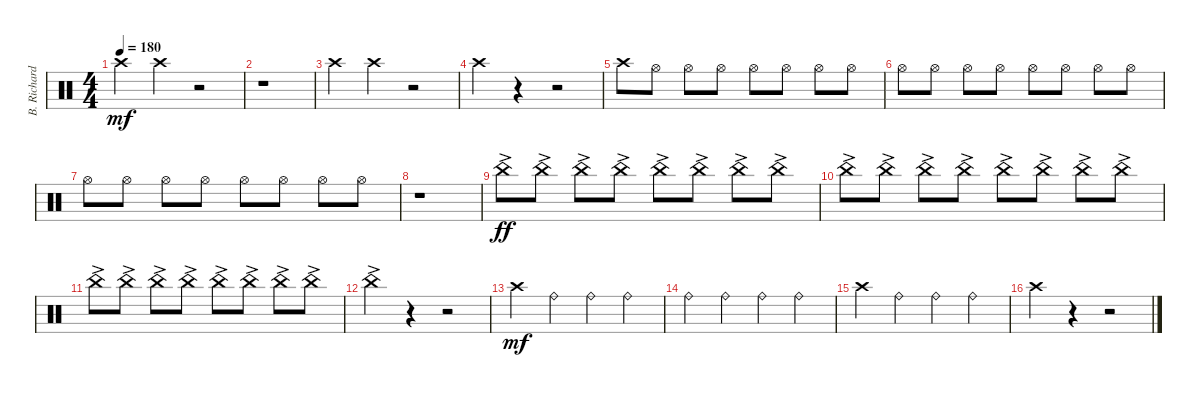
\track ("B. Richardson Drums" "B. Richard") {instrument percussion}
\staff {score}
\articulation defaults
\ts (4 4)
\tempo 180
\clef neutral
\ks c "Crash high (hit)".4{dy mf} "Crash high (hit)".4
r.2 |
r.1 |
"Crash high (hit)".4 "Crash high (hit)".4 r.2 |
"Crash high (hit)".4 r.4 r.2 |
"Crash high (hit)".8 "Hi-Hat (open)".8 "Hi-Hat (open)".8 "Hi-Hat (open)".8 "Hi-Hat (open)".8 "Hi-Hat (open)".8 "Hi-Hat (open)".8 "Hi-Hat (open)".8 |
"Hi-Hat (open)".8 "Hi-Hat (open)".8 "Hi-Hat (open)".8 "Hi-Hat (open)".8 "Hi-Hat (open)".8 "Hi-Hat (open)".8 "Hi-Hat (open)".8 "Hi-Hat (open)".8 |
"Hi-Hat (open)".8 "Hi-Hat (open)".8 "Hi-Hat (open)".8 "Hi-Hat (open)".8 "Hi-Hat (open)".8 "Hi-Hat (open)".8 "Hi-Hat (open)".8 "Hi-Hat (open)".8 |
r.1 |
"China (hit)"{ac}.8{dy ff} "China (hit)"{ac}.8 "China (hit)"{ac}.8 "China (hit)"{ac}.8 "China (hit)"{ac}.8 "China (hit)"{ac}.8 "China (hit)"{ac}.8 "China (hit)"{ac}.8 |
"China (hit)"{ac}.8 "China (hit)"{ac}.8 "China (hit)"{ac}.8 "China (hit)"{ac}.8 "China (hit)"{ac}.8 "China (hit)"{ac}.8 "China (hit)"{ac}.8 "China (hit)"{ac}.8 |
"China (hit)"{ac}.8 "China (hit)"{ac}.8 "China (hit)"{ac}.8 "China (hit)"{ac}.8 "China (hit)"{ac}.8 "China (hit)"{ac}.8 "China (hit)"{ac}.8 "China (hit)"{ac}.8 |
"China (hit)"{ac}.4 r.4 r.2 |
"Crash high (hit)".4{dy mf} "Ride (bell)".4 "Ride (bell)".4 "Ride (bell)".4 |
"Ride (bell)".4 "Ride (bell)".4 "Ride (bell)".4 "Ride (bell)".4 |
"Crash high (hit)".4 "Ride (bell)".4 "Ride (bell)".4 "Ride (bell)".4 |
"Crash high (hit)".4 r.4 r.2
